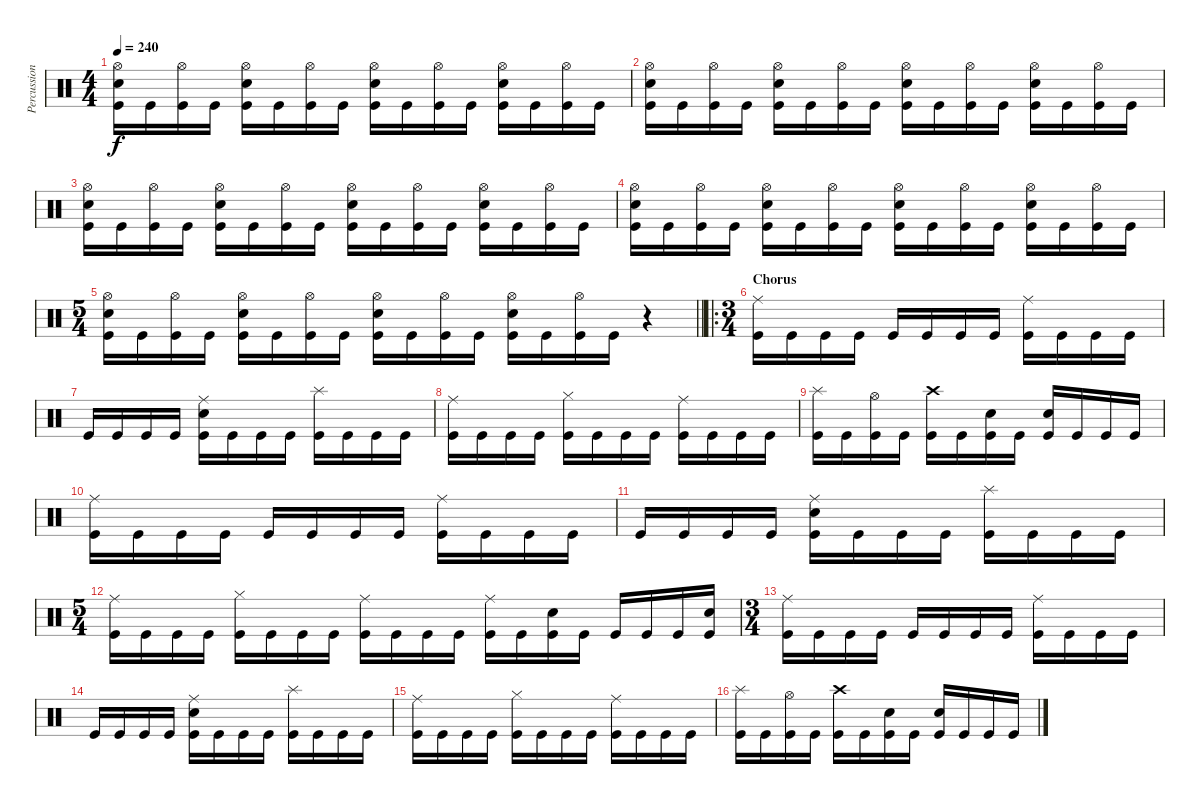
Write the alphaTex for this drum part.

\track ("Percussion" "Percussion") {instrument percussion}
\staff {score}
\articulation defaults
\ts (4 4)
\tempo 240
\clef neutral
\ks c
("Hi-Hat (open)" "Snare (hit) 2" "Kick (hit)").16{dy f} "Kick (hit)".16 ("Hi-Hat (open)" "Kick (hit)").16 "Kick (hit)".16 ("Hi-Hat (open)" "Snare (hit) 2" "Kick (hit)").16 "Kick (hit)".16 ("Hi-Hat (open)" "Kick (hit)").16 "Kick (hit)".16 ("Hi-Hat (open)" "Snare (hit) 2" "Kick (hit)").16 "Kick (hit)".16 ("Hi-Hat (open)" "Kick (hit)").16 "Kick (hit)".16 ("Hi-Hat (open)" "Snare (hit) 2" "Kick (hit)").16 "Kick (hit)".16 ("Hi-Hat (open)" "Kick (hit)").16 "Kick (hit)".16 |
("Hi-Hat (open)" "Snare (hit) 2" "Kick (hit)").16 "Kick (hit)".16 ("Hi-Hat (open)" "Kick (hit)").16 "Kick (hit)".16 ("Hi-Hat (open)" "Snare (hit) 2" "Kick (hit)").16 "Kick (hit)".16 ("Hi-Hat (open)" "Kick (hit)").16 "Kick (hit)".16 ("Hi-Hat (open)" "Snare (hit) 2" "Kick (hit)").16 "Kick (hit)".16 ("Hi-Hat (open)" "Kick (hit)").16 "Kick (hit)".16 ("Hi-Hat (open)" "Snare (hit) 2" "Kick (hit)").16 "Kick (hit)".16 ("Hi-Hat (open)" "Kick (hit)").16 "Kick (hit)".16 |
("Hi-Hat (open)" "Snare (hit) 2" "Kick (hit)").16 "Kick (hit)".16 ("Hi-Hat (open)" "Kick (hit)").16 "Kick (hit)".16 ("Hi-Hat (open)" "Snare (hit) 2" "Kick (hit)").16 "Kick (hit)".16 ("Hi-Hat (open)" "Kick (hit)").16 "Kick (hit)".16 ("Hi-Hat (open)" "Snare (hit) 2" "Kick (hit)").16 "Kick (hit)".16 ("Hi-Hat (open)" "Kick (hit)").16 "Kick (hit)".16 ("Hi-Hat (open)" "Snare (hit) 2" "Kick (hit)").16 "Kick (hit)".16 ("Hi-Hat (open)" "Kick (hit)").16 "Kick (hit)".16 |
("Hi-Hat (open)" "Snare (hit) 2" "Kick (hit)").16 "Kick (hit)".16 ("Hi-Hat (open)" "Kick (hit)").16 "Kick (hit)".16 ("Hi-Hat (open)" "Snare (hit) 2" "Kick (hit)").16 "Kick (hit)".16 ("Hi-Hat (open)" "Kick (hit)").16 "Kick (hit)".16 ("Hi-Hat (open)" "Snare (hit) 2" "Kick (hit)").16 "Kick (hit)".16 ("Hi-Hat (open)" "Kick (hit)").16 "Kick (hit)".16 ("Hi-Hat (open)" "Snare (hit) 2" "Kick (hit)").16 "Kick (hit)".16 ("Hi-Hat (open)" "Kick (hit)").16 "Kick (hit)".16 |
\ts (5 4)
\barLineRight lightlight
("Hi-Hat (open)" "Snare (hit) 2" "Kick (hit)").16 "Kick (hit)".16 ("Hi-Hat (open)" "Kick (hit)").16 "Kick (hit)".16 ("Hi-Hat (open)" "Snare (hit) 2" "Kick (hit)").16 "Kick (hit)".16 ("Hi-Hat (open)" "Kick (hit)").16 "Kick (hit)".16 ("Hi-Hat (open)" "Snare (hit) 2" "Kick (hit)").16 "Kick (hit)".16 ("Hi-Hat (open)" "Kick (hit)").16 "Kick (hit)".16 ("Hi-Hat (open)" "Snare (hit) 2" "Kick (hit)").16 "Kick (hit)".16 ("Hi-Hat (open)" "Kick (hit)").16 "Kick (hit)".16 r.4 |
\ro
\ts (3 4)
\section ("" "Chorus")
("Ride (middle)" "Kick (hit)").16 "Kick (hit)".16 "Kick (hit)".16 "Kick (hit)".16 "Kick (hit)".16 "Kick (hit)".16 "Kick (hit)".16 "Kick (hit)".16 ("Ride (middle)" "Kick (hit)").16 "Kick (hit)".16 "Kick (hit)".16 "Kick (hit)".16 |
"Kick (hit)".16 "Kick (hit)".16 "Kick (hit)".16 "Kick (hit)".16 ("Ride (middle)" "Snare (hit) 2" "Kick (hit)").16 "Kick (hit)".16 "Kick (hit)".16 "Kick (hit)".16 ("Splash (hit)" "Kick (hit)").16 "Kick (hit)".16 "Kick (hit)".16 "Kick (hit)".16 |
("Ride (middle)" "Kick (hit)").16 "Kick (hit)".16 "Kick (hit)".16 "Kick (hit)".16 ("Hi-Hat (closed)" "Kick (hit)").16 "Kick (hit)".16 "Kick (hit)".16 "Kick (hit)".16 ("Ride (middle)" "Kick (hit)").16 "Kick (hit)".16 "Kick (hit)".16 "Kick (hit)".16 |
("Splash (hit)" "Kick (hit)").16 "Kick (hit)".16 ("Hi-Hat (open)" "Kick (hit)").16 "Kick (hit)".16 ("Crash high (hit)" "Kick (hit)").16 "Kick (hit)".16 ("Snare (hit) 2" "Kick (hit)").16 "Kick (hit)".16 ("Snare (hit) 2" "Kick (hit)").16 "Kick (hit)".16 "Kick (hit)".16 "Kick (hit)".16 |
("Ride (middle)" "Kick (hit)").16 "Kick (hit)".16 "Kick (hit)".16 "Kick (hit)".16 "Kick (hit)".16 "Kick (hit)".16 "Kick (hit)".16 "Kick (hit)".16 ("Ride (middle)" "Kick (hit)").16 "Kick (hit)".16 "Kick (hit)".16 "Kick (hit)".16 |
"Kick (hit)".16 "Kick (hit)".16 "Kick (hit)".16 "Kick (hit)".16 ("Ride (middle)" "Snare (hit) 2" "Kick (hit)").16 "Kick (hit)".16 "Kick (hit)".16 "Kick (hit)".16 ("Splash (hit)" "Kick (hit)").16 "Kick (hit)".16 "Kick (hit)".16 "Kick (hit)".16 |
\ts (5 4)
("Ride (middle)" "Kick (hit)").16 "Kick (hit)".16 "Kick (hit)".16 "Kick (hit)".16 ("Hi-Hat (closed)" "Kick (hit)").16 "Kick (hit)".16 "Kick (hit)".16 "Kick (hit)".16 ("Ride (middle)" "Kick (hit)").16 "Kick (hit)".16 "Kick (hit)".16 "Kick (hit)".16 ("Ride (middle)" "Kick (hit)").16 "Kick (hit)".16 ("Snare (hit) 2" "Kick (hit)").16 "Kick (hit)".16 "Kick (hit)".16 "Kick (hit)".16 "Kick (hit)".16 ("Snare (hit) 2" "Kick (hit)").16 |
\ts (3 4)
("Ride (middle)" "Kick (hit)").16 "Kick (hit)".16 "Kick (hit)".16 "Kick (hit)".16 "Kick (hit)".16 "Kick (hit)".16 "Kick (hit)".16 "Kick (hit)".16 ("Ride (middle)" "Kick (hit)").16 "Kick (hit)".16 "Kick (hit)".16 "Kick (hit)".16 |
"Kick (hit)".16 "Kick (hit)".16 "Kick (hit)".16 "Kick (hit)".16 ("Ride (middle)" "Snare (hit) 2" "Kick (hit)").16 "Kick (hit)".16 "Kick (hit)".16 "Kick (hit)".16 ("Splash (hit)" "Kick (hit)").16 "Kick (hit)".16 "Kick (hit)".16 "Kick (hit)".16 |
("Ride (middle)" "Kick (hit)").16 "Kick (hit)".16 "Kick (hit)".16 "Kick (hit)".16 ("Hi-Hat (closed)" "Kick (hit)").16 "Kick (hit)".16 "Kick (hit)".16 "Kick (hit)".16 ("Ride (middle)" "Kick (hit)").16 "Kick (hit)".16 "Kick (hit)".16 "Kick (hit)".16 |
("Splash (hit)" "Kick (hit)").16 "Kick (hit)".16 ("Hi-Hat (open)" "Kick (hit)").16 "Kick (hit)".16 ("Crash high (hit)" "Kick (hit)").16 "Kick (hit)".16 ("Snare (hit) 2" "Kick (hit)").16 "Kick (hit)".16 ("Snare (hit) 2" "Kick (hit)").16 "Kick (hit)".16 "Kick (hit)".16 "Kick (hit)".16
